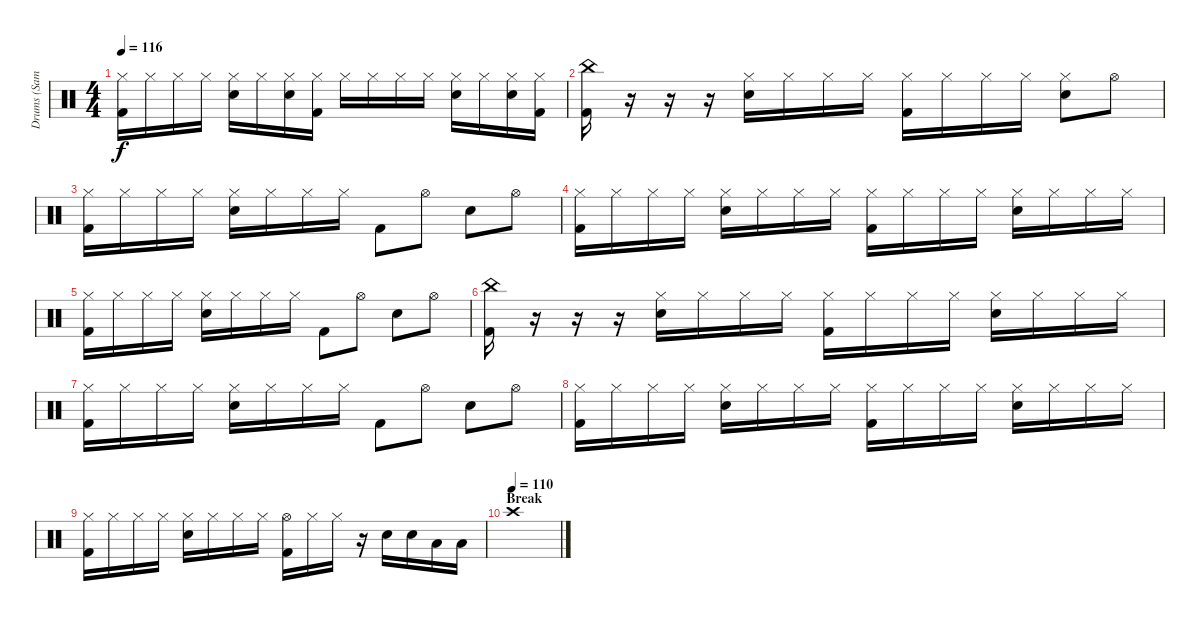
\track ("Drums (Sam)" "Drums (Sam") {instrument percussion}
\staff {score}
\articulation defaults
\ts (4 4)
\tempo 116
\clef neutral
\ks c
("Hi-Hat (closed)" "Kick (hit) 2").16{dy f} "Hi-Hat (closed)".16 "Hi-Hat (closed)".16 "Hi-Hat (closed)".16 ("Hi-Hat (closed)" "Snare (hit) 2").16 "Hi-Hat (closed)".16 ("Hi-Hat (closed)" "Snare (hit) 2").16 ("Hi-Hat (closed)" "Kick (hit) 2").16 "Hi-Hat (closed)".16 "Hi-Hat (closed)".16 "Hi-Hat (closed)".16 "Hi-Hat (closed)".16 ("Hi-Hat (closed)" "Snare (hit) 2").16 "Hi-Hat (closed)".16 ("Hi-Hat (closed)" "Snare (hit) 2").16 ("Hi-Hat (closed)" "Kick (hit) 2").16 |
("China (hit)" "Kick (hit) 2").16 r.16 r.16 r.16 ("Hi-Hat (closed)" "Snare (hit) 2").16 "Hi-Hat (closed)".16 "Hi-Hat (closed)".16 "Hi-Hat (closed)".16 ("Hi-Hat (closed)" "Kick (hit) 2").16 "Hi-Hat (closed)".16 "Hi-Hat (closed)".16 "Hi-Hat (closed)".16 ("Hi-Hat (closed)" "Snare (hit) 2").8 "Hi-Hat (open)".8 |
("Hi-Hat (closed)" "Kick (hit) 2").16 "Hi-Hat (closed)".16 "Hi-Hat (closed)".16 "Hi-Hat (closed)".16 ("Hi-Hat (closed)" "Snare (hit) 2").16 "Hi-Hat (closed)".16 "Hi-Hat (closed)".16 "Hi-Hat (closed)".16 "Kick (hit) 2".8 "Hi-Hat (open)".8 "Snare (hit) 2".8 "Hi-Hat (open)".8 |
("Hi-Hat (closed)" "Kick (hit) 2").16 "Hi-Hat (closed)".16 "Hi-Hat (closed)".16 "Hi-Hat (closed)".16 ("Hi-Hat (closed)" "Snare (hit) 2").16 "Hi-Hat (closed)".16 "Hi-Hat (closed)".16 "Hi-Hat (closed)".16 ("Hi-Hat (closed)" "Kick (hit) 2").16 "Hi-Hat (closed)".16 "Hi-Hat (closed)".16 "Hi-Hat (closed)".16 ("Hi-Hat (closed)" "Snare (hit) 2").16 "Hi-Hat (closed)".16 "Hi-Hat (closed)".16 "Hi-Hat (closed)".16 |
("Hi-Hat (closed)" "Kick (hit) 2").16 "Hi-Hat (closed)".16 "Hi-Hat (closed)".16 "Hi-Hat (closed)".16 ("Hi-Hat (closed)" "Snare (hit) 2").16 "Hi-Hat (closed)".16 "Hi-Hat (closed)".16 "Hi-Hat (closed)".16 "Kick (hit) 2".8 "Hi-Hat (open)".8 "Snare (hit) 2".8 "Hi-Hat (open)".8 |
("China (hit)" "Kick (hit) 2").16 r.16 r.16 r.16 ("Hi-Hat (closed)" "Snare (hit) 2").16 "Hi-Hat (closed)".16 "Hi-Hat (closed)".16 "Hi-Hat (closed)".16 ("Hi-Hat (closed)" "Kick (hit) 2").16 "Hi-Hat (closed)".16 "Hi-Hat (closed)".16 "Hi-Hat (closed)".16 ("Hi-Hat (closed)" "Snare (hit) 2").16 "Hi-Hat (closed)".16 "Hi-Hat (closed)".16 "Hi-Hat (closed)".16 |
("Hi-Hat (closed)" "Kick (hit) 2").16 "Hi-Hat (closed)".16 "Hi-Hat (closed)".16 "Hi-Hat (closed)".16 ("Hi-Hat (closed)" "Snare (hit) 2").16 "Hi-Hat (closed)".16 "Hi-Hat (closed)".16 "Hi-Hat (closed)".16 "Kick (hit) 2".8 "Hi-Hat (open)".8 "Snare (hit) 2".8 "Hi-Hat (open)".8 |
("Hi-Hat (closed)" "Kick (hit) 2").16 "Hi-Hat (closed)".16 "Hi-Hat (closed)".16 "Hi-Hat (closed)".16 ("Hi-Hat (closed)" "Snare (hit) 2").16 "Hi-Hat (closed)".16 "Hi-Hat (closed)".16 "Hi-Hat (closed)".16 ("Hi-Hat (closed)" "Kick (hit) 2").16 "Hi-Hat (closed)".16 "Hi-Hat (closed)".16 "Hi-Hat (closed)".16 ("Hi-Hat (closed)" "Snare (hit) 2").16 "Hi-Hat (closed)".16 "Hi-Hat (closed)".16 "Hi-Hat (closed)".16 |
("Hi-Hat (closed)" "Kick (hit) 2").16 "Hi-Hat (closed)".16 "Hi-Hat (closed)".16 "Hi-Hat (closed)".16 ("Hi-Hat (closed)" "Snare (hit) 2").16 "Hi-Hat (closed)".16 "Hi-Hat (closed)".16 "Hi-Hat (closed)".16 ("Hi-Hat (open)" "Kick (hit) 2").16 "Hi-Hat (closed)".16 "Hi-Hat (closed)".16 r.16 "Snare (hit) 2".16 "Snare (hit) 2".16 "Low Floor Tom (hit)".16 "Low Floor Tom (hit)".16 |
\section ("" "Break")
\tempo (110)
"Crash high (hit)".1
